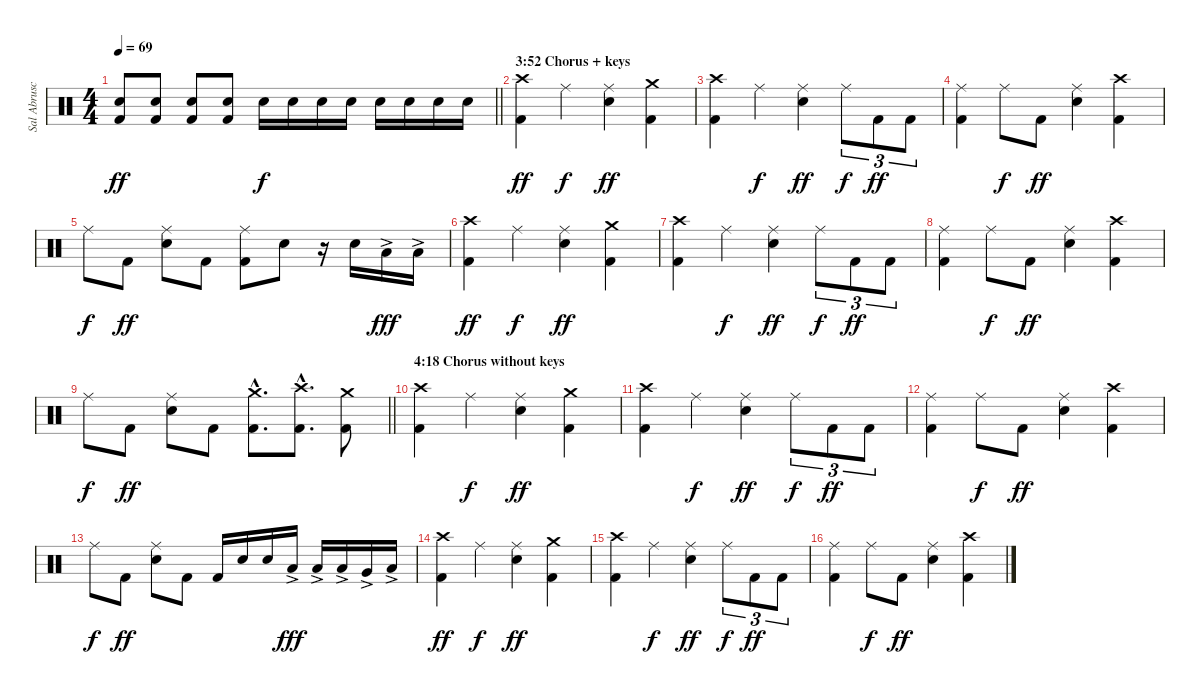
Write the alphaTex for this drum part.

\track ("Sal Abruscato (Drums)" "Sal Abrusc") {instrument percussion}
\staff {score}
\articulation defaults
\ts (4 4)
\tempo 69
\clef neutral
\barLineRight lightlight
\ks c
("Kick (hit) 2" "Electric Snare (hit)").8{dy ff} ("Kick (hit) 2" "Electric Snare (hit)").8 ("Kick (hit) 2" "Electric Snare (hit)").8 ("Kick (hit) 2" "Electric Snare (hit)").8 "Electric Snare (hit)".16{dy f} "Electric Snare (hit)".16 "Electric Snare (hit)".16 "Electric Snare (hit)".16 "Electric Snare (hit)".16 "Electric Snare (hit)".16 "Electric Snare (hit)".16 "Electric Snare (hit)".16 |
\section ("" "3:52 Chorus + keys")
("Kick (hit) 2" "Crash high (hit)").4{dy ff} "Ride (middle)".4{dy f} ("Electric Snare (hit)" "Ride (middle)").4{dy ff} ("Kick (hit) 2" "Crash medium (hit)").4 |
("Kick (hit) 2" "Crash high (hit)").4 "Ride (middle)".4{dy f} ("Electric Snare (hit)" "Ride (middle)").4{dy ff} "Ride (middle)".8{tu (3 2) dy f} "Kick (hit) 2".8{tu (3 2) dy ff} "Kick (hit) 2".8{tu (3 2)} |
("Kick (hit) 2" "Ride (middle)").4 "Ride (middle)".8{dy f} "Kick (hit) 2".8{dy ff} ("Electric Snare (hit)" "Ride (middle)").4 ("Kick (hit) 2" "Crash high (hit)").4 |
"Ride (middle)".8{dy f} "Kick (hit) 2".8{dy ff} ("Electric Snare (hit)" "Ride (middle)").8 "Kick (hit) 2".8 ("Kick (hit) 2" "Ride (middle)").8 "Electric Snare (hit)".8 r.16 "Electric Snare (hit)".16 "Low Tom (hit)"{ac}.16{dy fff} "Low Floor Tom (hit)"{ac}.16 |
("Kick (hit) 2" "Crash high (hit)").4{dy ff} "Ride (middle)".4{dy f} ("Electric Snare (hit)" "Ride (middle)").4{dy ff} ("Kick (hit) 2" "Crash medium (hit)").4 |
("Kick (hit) 2" "Crash high (hit)").4 "Ride (middle)".4{dy f} ("Electric Snare (hit)" "Ride (middle)").4{dy ff} "Ride (middle)".8{tu (3 2) dy f} "Kick (hit) 2".8{tu (3 2) dy ff} "Kick (hit) 2".8{tu (3 2)} |
("Kick (hit) 2" "Ride (middle)").4 "Ride (middle)".8{dy f} "Kick (hit) 2".8{dy ff} ("Electric Snare (hit)" "Ride (middle)").4 ("Kick (hit) 2" "Crash high (hit)").4 |
\barLineRight lightlight "Ride (middle)".8{dy f} "Kick (hit) 2".8{dy ff}
("Electric Snare (hit)" "Ride (middle)").8 "Kick (hit) 2".8 ("Kick (hit) 2"{hac} "Crash medium (hit)"{hac}).8{d} ("Kick (hit) 2"{hac} "Crash high (hit)"{hac}).8{d} ("Kick (hit) 2" "Crash medium (hit)").8 |
\section ("" "4:18 Chorus without keys")
("Kick (hit) 2" "Crash high (hit)").4 "Ride (middle)".4{dy f} ("Electric Snare (hit)" "Ride (middle)").4{dy ff} ("Kick (hit) 2" "Crash medium (hit)").4 |
("Kick (hit) 2" "Crash high (hit)").4 "Ride (middle)".4{dy f} ("Electric Snare (hit)" "Ride (middle)").4{dy ff} "Ride (middle)".8{tu (3 2) dy f} "Kick (hit) 2".8{tu (3 2) dy ff} "Kick (hit) 2".8{tu (3 2)} |
("Kick (hit) 2" "Ride (middle)").4 "Ride (middle)".8{dy f} "Kick (hit) 2".8{dy ff} ("Electric Snare (hit)" "Ride (middle)").4 ("Kick (hit) 2" "Crash high (hit)").4 |
"Ride (middle)".8{dy f} "Kick (hit) 2".8{dy ff} ("Electric Snare (hit)" "Ride (middle)").8 "Kick (hit) 2".8 "Kick (hit) 2".16 "Electric Snare (hit)".16 "Electric Snare (hit)".16 "Low Tom (hit)"{ac}.16{dy fff} "Low Tom (hit)"{ac}.16 "Low Tom (hit)"{ac}.16 "Very Low Tom (hit)"{ac}.16 "Low Floor Tom (hit)"{ac}.16 |
("Kick (hit) 2" "Crash high (hit)").4{dy ff} "Ride (middle)".4{dy f} ("Electric Snare (hit)" "Ride (middle)").4{dy ff} ("Kick (hit) 2" "Crash medium (hit)").4 |
("Kick (hit) 2" "Crash high (hit)").4 "Ride (middle)".4{dy f} ("Electric Snare (hit)" "Ride (middle)").4{dy ff} "Ride (middle)".8{tu (3 2) dy f} "Kick (hit) 2".8{tu (3 2) dy ff} "Kick (hit) 2".8{tu (3 2)} |
("Kick (hit) 2" "Ride (middle)").4 "Ride (middle)".8{dy f} "Kick (hit) 2".8{dy ff} ("Electric Snare (hit)" "Ride (middle)").4 ("Kick (hit) 2" "Crash high (hit)").4
